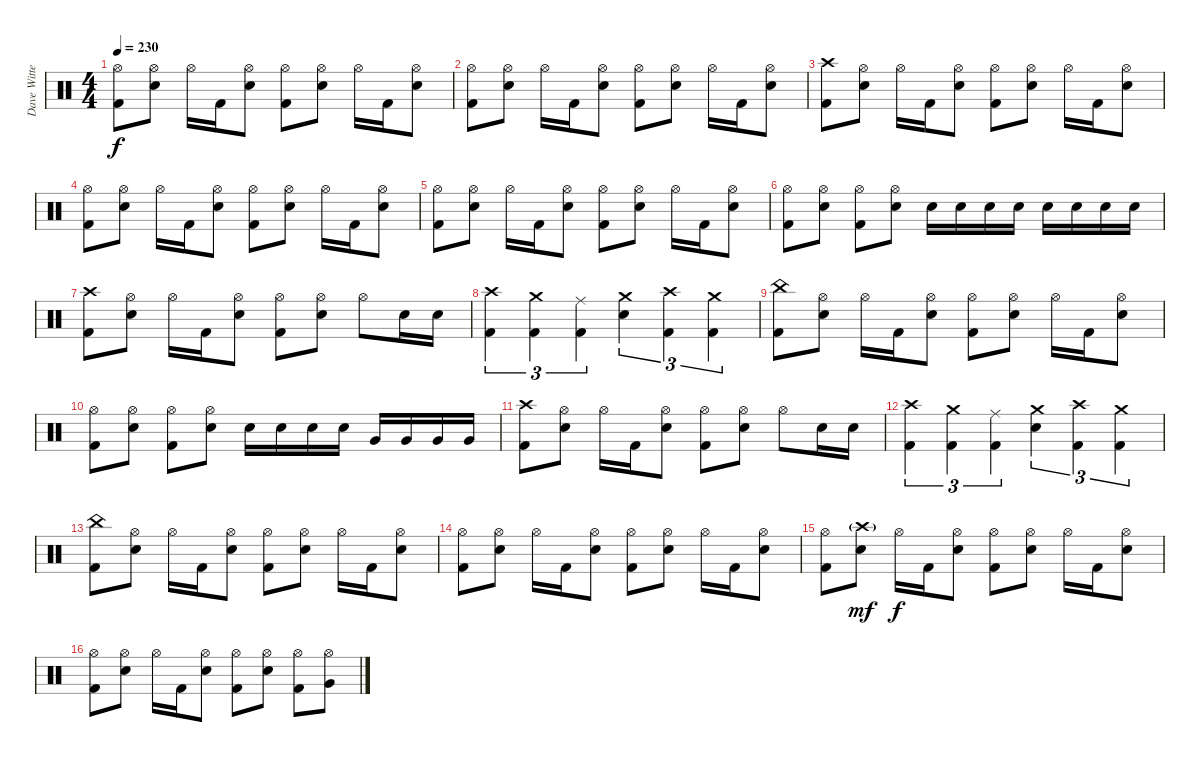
\track ("Dave Witte" "Dave Witte") {instrument percussion}
\staff {score}
\articulation defaults
\ts (4 4)
\tempo 230
\clef neutral
\ks c
("Hi-Hat (open)" "Kick (hit) 2").8{dy f} ("Hi-Hat (open)" "Electric Snare (hit)").8 "Hi-Hat (open)".16 "Kick (hit) 2".16 ("Hi-Hat (open)" "Electric Snare (hit)").8 ("Hi-Hat (open)" "Kick (hit) 2").8 ("Hi-Hat (open)" "Electric Snare (hit)").8 "Hi-Hat (open)".16 "Kick (hit) 2".16 ("Hi-Hat (open)" "Electric Snare (hit)").8 |
("Hi-Hat (open)" "Kick (hit) 2").8 ("Hi-Hat (open)" "Electric Snare (hit)").8 "Hi-Hat (open)".16 "Kick (hit) 2".16 ("Hi-Hat (open)" "Electric Snare (hit)").8 ("Hi-Hat (open)" "Kick (hit) 2").8 ("Hi-Hat (open)" "Electric Snare (hit)").8 "Hi-Hat (open)".16 "Kick (hit) 2".16 ("Hi-Hat (open)" "Electric Snare (hit)").8 |
("Crash high (hit)" "Kick (hit) 2").8 ("Hi-Hat (open)" "Electric Snare (hit)").8 "Hi-Hat (open)".16 "Kick (hit) 2".16 ("Hi-Hat (open)" "Electric Snare (hit)").8 ("Hi-Hat (open)" "Kick (hit) 2").8 ("Hi-Hat (open)" "Electric Snare (hit)").8 "Hi-Hat (open)".16 "Kick (hit) 2".16 ("Hi-Hat (open)" "Electric Snare (hit)").8 |
("Hi-Hat (open)" "Kick (hit) 2").8 ("Hi-Hat (open)" "Electric Snare (hit)").8 "Hi-Hat (open)".16 "Kick (hit) 2".16 ("Hi-Hat (open)" "Electric Snare (hit)").8 ("Hi-Hat (open)" "Kick (hit) 2").8 ("Hi-Hat (open)" "Electric Snare (hit)").8 "Hi-Hat (open)".16 "Kick (hit) 2".16 ("Hi-Hat (open)" "Electric Snare (hit)").8 |
("Hi-Hat (open)" "Kick (hit) 2").8 ("Hi-Hat (open)" "Electric Snare (hit)").8 "Hi-Hat (open)".16 "Kick (hit) 2".16 ("Hi-Hat (open)" "Electric Snare (hit)").8 ("Hi-Hat (open)" "Kick (hit) 2").8 ("Hi-Hat (open)" "Electric Snare (hit)").8 "Hi-Hat (open)".16 "Kick (hit) 2".16 ("Hi-Hat (open)" "Electric Snare (hit)").8 |
("Hi-Hat (open)" "Kick (hit) 2").8 ("Hi-Hat (open)" "Electric Snare (hit)").8 ("Hi-Hat (open)" "Kick (hit) 2").8 ("Hi-Hat (open)" "Electric Snare (hit)").8 "Electric Snare (hit)".16 "Electric Snare (hit)".16 "Electric Snare (hit)".16 "Electric Snare (hit)".16 "Electric Snare (hit)".16 "Electric Snare (hit)".16 "Electric Snare (hit)".16 "Electric Snare (hit)".16 |
("Crash high (hit)" "Kick (hit) 2").8 ("Hi-Hat (open)" "Electric Snare (hit)").8 "Hi-Hat (open)".16 "Kick (hit) 2".16 ("Hi-Hat (open)" "Electric Snare (hit)").8 ("Hi-Hat (open)" "Kick (hit) 2").8 ("Hi-Hat (open)" "Electric Snare (hit)").8 "Hi-Hat (open)".8 "Electric Snare (hit)".16 "Electric Snare (hit)".16 |
("Crash high (hit)" "Kick (hit) 2").4{tu (3 2)} ("Crash medium (hit)" "Kick (hit) 2").4{tu (3 2)} ("Ride (middle)" "Kick (hit) 2").4{tu (3 2)} ("Crash medium (hit)" "Electric Snare (hit)").4{tu (3 2)} ("Crash high (hit)" "Kick (hit) 2").4{tu (3 2)} ("Crash medium (hit)" "Kick (hit) 2").4{tu (3 2)} |
("China (hit)" "Kick (hit) 2").8 ("Hi-Hat (open)" "Electric Snare (hit)").8 "Hi-Hat (open)".16 "Kick (hit) 2".16 ("Hi-Hat (open)" "Electric Snare (hit)").8 ("Hi-Hat (open)" "Kick (hit) 2").8 ("Hi-Hat (open)" "Electric Snare (hit)").8 "Hi-Hat (open)".16 "Kick (hit) 2".16 ("Hi-Hat (open)" "Electric Snare (hit)").8 |
("Hi-Hat (open)" "Kick (hit) 2").8 ("Hi-Hat (open)" "Electric Snare (hit)").8 ("Hi-Hat (open)" "Kick (hit) 2").8 ("Hi-Hat (open)" "Electric Snare (hit)").8 "Electric Snare (hit)".16 "Electric Snare (hit)".16 "Electric Snare (hit)".16 "Electric Snare (hit)".16 "Very Low Tom (hit)".16 "Very Low Tom (hit)".16 "Very Low Tom (hit)".16 "Very Low Tom (hit)".16 |
("Crash high (hit)" "Kick (hit) 2").8 ("Hi-Hat (open)" "Electric Snare (hit)").8 "Hi-Hat (open)".16 "Kick (hit) 2".16 ("Hi-Hat (open)" "Electric Snare (hit)").8 ("Hi-Hat (open)" "Kick (hit) 2").8 ("Hi-Hat (open)" "Electric Snare (hit)").8 "Hi-Hat (open)".8 "Electric Snare (hit)".16 "Electric Snare (hit)".16 |
("Crash high (hit)" "Kick (hit) 2").4{tu (3 2)} ("Crash medium (hit)" "Kick (hit) 2").4{tu (3 2)} ("Ride (middle)" "Kick (hit) 2").4{tu (3 2)} ("Crash medium (hit)" "Electric Snare (hit)").4{tu (3 2)} ("Crash high (hit)" "Kick (hit) 2").4{tu (3 2)} ("Crash medium (hit)" "Kick (hit) 2").4{tu (3 2)} |
("China (hit)" "Kick (hit) 2").8 ("Hi-Hat (open)" "Electric Snare (hit)").8 "Hi-Hat (open)".16 "Kick (hit) 2".16 ("Hi-Hat (open)" "Electric Snare (hit)").8 ("Hi-Hat (open)" "Kick (hit) 2").8 ("Hi-Hat (open)" "Electric Snare (hit)").8 "Hi-Hat (open)".16 "Kick (hit) 2".16 ("Hi-Hat (open)" "Electric Snare (hit)").8 |
("Hi-Hat (open)" "Kick (hit) 2").8 ("Hi-Hat (open)" "Electric Snare (hit)").8 "Hi-Hat (open)".16 "Kick (hit) 2".16 ("Hi-Hat (open)" "Electric Snare (hit)").8 ("Hi-Hat (open)" "Kick (hit) 2").8 ("Hi-Hat (open)" "Electric Snare (hit)").8 "Hi-Hat (open)".16 "Kick (hit) 2".16 ("Hi-Hat (open)" "Electric Snare (hit)").8 |
("Hi-Hat (open)" "Kick (hit) 2").8 ("Crash high (hit)"{g} "Electric Snare (hit)").8{dy mf} "Hi-Hat (open)".16{dy f} "Kick (hit) 2".16 ("Hi-Hat (open)" "Electric Snare (hit)").8 ("Hi-Hat (open)" "Kick (hit) 2").8 ("Hi-Hat (open)" "Electric Snare (hit)").8 "Hi-Hat (open)".16 "Kick (hit) 2".16 ("Hi-Hat (open)" "Electric Snare (hit)").8 |
("Hi-Hat (open)" "Kick (hit) 2").8 ("Hi-Hat (open)" "Electric Snare (hit)").8 "Hi-Hat (open)".16 "Kick (hit) 2".16 ("Hi-Hat (open)" "Electric Snare (hit)").8 ("Hi-Hat (open)" "Kick (hit) 2").8 ("Hi-Hat (open)" "Electric Snare (hit)").8 ("Hi-Hat (open)" "Kick (hit) 2").8 ("Hi-Hat (open)" "Very Low Tom (hit)").8
